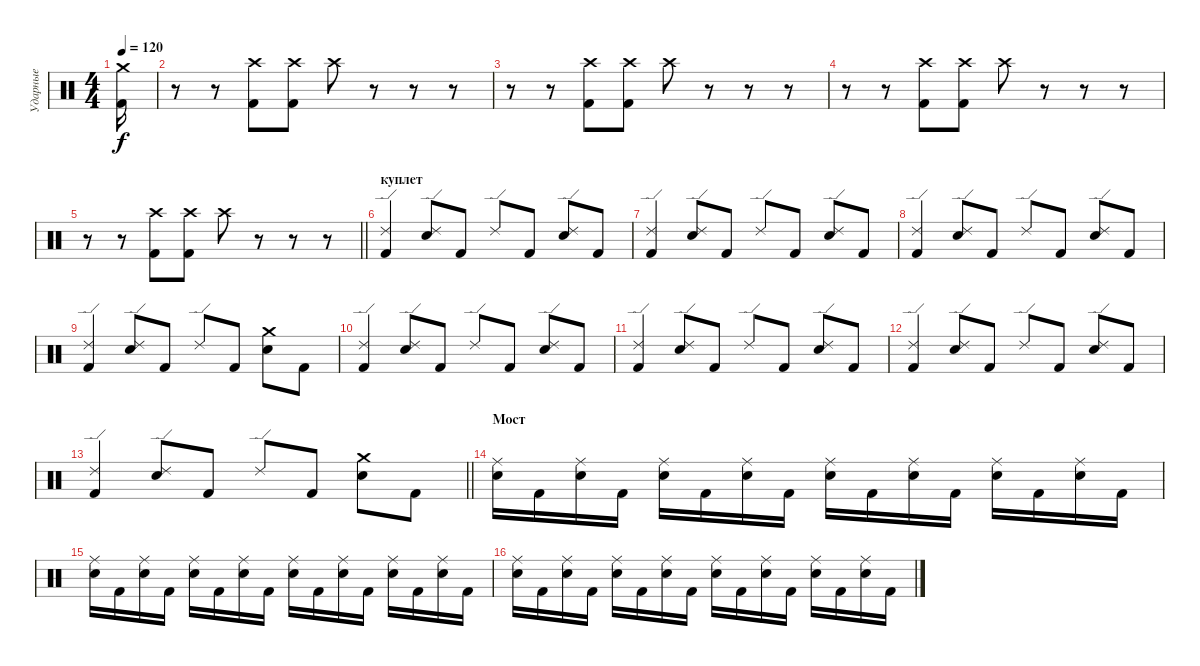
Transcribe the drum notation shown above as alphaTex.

\track ("Ударные" "Ударные") {instrument percussion}
\staff {score}
\articulation defaults
\ts (4 4)
\tempo 120
\clef neutral
\ks c
("Kick (hit) 2" "Crash medium (hit)").16{dy f} |
r.8 r.8 ("Kick (hit) 2" "Crash high (hit)").8 ("Kick (hit) 2" "Crash high (hit)").8 "Crash high (hit)".8 r.8 r.8 r.8 |
r.8 r.8 ("Kick (hit) 2" "Crash high (hit)").8 ("Kick (hit) 2" "Crash high (hit)").8 "Crash high (hit)".8 r.8 r.8 r.8 |
r.8 r.8 ("Kick (hit) 2" "Crash high (hit)").8 ("Kick (hit) 2" "Crash high (hit)").8 "Crash high (hit)".8 r.8 r.8 r.8 |
\barLineRight lightlight
r.8 r.8 ("Kick (hit) 2" "Crash high (hit)").8 ("Kick (hit) 2" "Crash high (hit)").8 "Crash high (hit)".8 r.8 r.8 r.8 |
\section ("" "куплет")
("Kick (hit) 2" "Ride (edge) 2").4 ("Electric Snare (hit)" "Ride (edge) 2").8 "Kick (hit) 2".8 "Ride (edge) 2".8 "Kick (hit) 2".8 ("Electric Snare (hit)" "Ride (edge) 2").8 "Kick (hit) 2".8 |
("Kick (hit) 2" "Ride (edge) 2").4 ("Electric Snare (hit)" "Ride (edge) 2").8 "Kick (hit) 2".8 "Ride (edge) 2".8 "Kick (hit) 2".8 ("Electric Snare (hit)" "Ride (edge) 2").8 "Kick (hit) 2".8 |
("Kick (hit) 2" "Ride (edge) 2").4 ("Electric Snare (hit)" "Ride (edge) 2").8 "Kick (hit) 2".8 "Ride (edge) 2".8 "Kick (hit) 2".8 ("Electric Snare (hit)" "Ride (edge) 2").8 "Kick (hit) 2".8 |
("Kick (hit) 2" "Ride (edge) 2").4 ("Electric Snare (hit)" "Ride (edge) 2").8 "Kick (hit) 2".8 "Ride (edge) 2".8 "Kick (hit) 2".8 ("Electric Snare (hit)" "Crash medium (hit)").8 "Kick (hit) 2".8 |
("Kick (hit) 2" "Ride (edge) 2").4 ("Electric Snare (hit)" "Ride (edge) 2").8 "Kick (hit) 2".8 "Ride (edge) 2".8 "Kick (hit) 2".8 ("Electric Snare (hit)" "Ride (edge) 2").8 "Kick (hit) 2".8 |
("Kick (hit) 2" "Ride (edge) 2").4 ("Electric Snare (hit)" "Ride (edge) 2").8 "Kick (hit) 2".8 "Ride (edge) 2".8 "Kick (hit) 2".8 ("Electric Snare (hit)" "Ride (edge) 2").8 "Kick (hit) 2".8 |
("Kick (hit) 2" "Ride (edge) 2").4 ("Electric Snare (hit)" "Ride (edge) 2").8 "Kick (hit) 2".8 "Ride (edge) 2".8 "Kick (hit) 2".8 ("Electric Snare (hit)" "Ride (edge) 2").8 "Kick (hit) 2".8 |
\barLineRight lightlight
("Kick (hit) 2" "Ride (edge) 2").4 ("Electric Snare (hit)" "Ride (edge) 2").8 "Kick (hit) 2".8 "Ride (edge) 2".8 "Kick (hit) 2".8 ("Electric Snare (hit)" "Crash medium (hit)").8 "Kick (hit) 2".8 |
\section ("" "Мост")
("Electric Snare (hit)" "Ride (middle)").16 "Kick (hit) 2".16 ("Electric Snare (hit)" "Ride (middle)").16 "Kick (hit) 2".16 ("Electric Snare (hit)" "Ride (middle)").16 "Kick (hit) 2".16 ("Electric Snare (hit)" "Ride (middle)").16 "Kick (hit) 2".16 ("Electric Snare (hit)" "Ride (middle)").16 "Kick (hit) 2".16 ("Electric Snare (hit)" "Ride (middle)").16 "Kick (hit) 2".16 ("Electric Snare (hit)" "Ride (middle)").16 "Kick (hit) 2".16 ("Electric Snare (hit)" "Ride (middle)").16 "Kick (hit) 2".16 |
("Electric Snare (hit)" "Ride (middle)").16 "Kick (hit) 2".16 ("Electric Snare (hit)" "Ride (middle)").16 "Kick (hit) 2".16 ("Electric Snare (hit)" "Ride (middle)").16 "Kick (hit) 2".16 ("Electric Snare (hit)" "Ride (middle)").16 "Kick (hit) 2".16 ("Electric Snare (hit)" "Ride (middle)").16 "Kick (hit) 2".16 ("Electric Snare (hit)" "Ride (middle)").16 "Kick (hit) 2".16 ("Electric Snare (hit)" "Ride (middle)").16 "Kick (hit) 2".16 ("Electric Snare (hit)" "Ride (middle)").16 "Kick (hit) 2".16 |
("Electric Snare (hit)" "Ride (middle)").16 "Kick (hit) 2".16 ("Electric Snare (hit)" "Ride (middle)").16 "Kick (hit) 2".16 ("Electric Snare (hit)" "Ride (middle)").16 "Kick (hit) 2".16 ("Electric Snare (hit)" "Ride (middle)").16 "Kick (hit) 2".16 ("Electric Snare (hit)" "Ride (middle)").16 "Kick (hit) 2".16 ("Electric Snare (hit)" "Ride (middle)").16 "Kick (hit) 2".16 ("Electric Snare (hit)" "Ride (middle)").16 "Kick (hit) 2".16 ("Electric Snare (hit)" "Ride (middle)").16 "Kick (hit) 2".16
